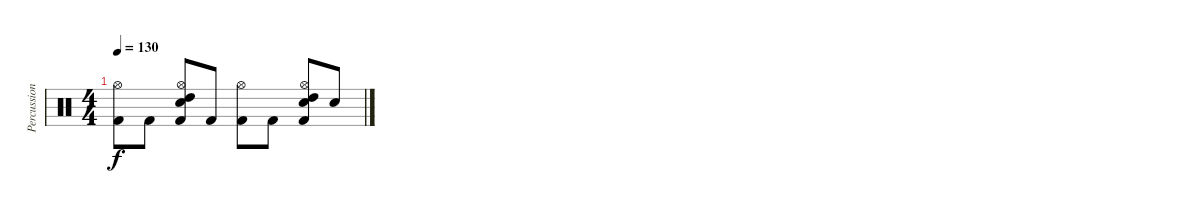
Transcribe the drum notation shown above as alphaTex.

\track ("Percussion" "Percussion") {instrument percussion}
\staff {score}
\articulation defaults
\ts (4 4)
\tempo 130
\clef neutral
\ks c
("Kick (hit) 2" "Hi-Hat (open)").8{dy f} "Kick (hit) 2".8 ("High Tom (hit)" "Snare (hit) 2" "Kick (hit) 2" "Hi-Hat (open)").8 "Kick (hit) 2".8 ("Kick (hit) 2" "Hi-Hat (open)").8 "Kick (hit) 2".8 ("Snare (hit) 2" "High Tom (hit)" "Kick (hit) 2" "Hi-Hat (open)").8 "Snare (hit)".8
